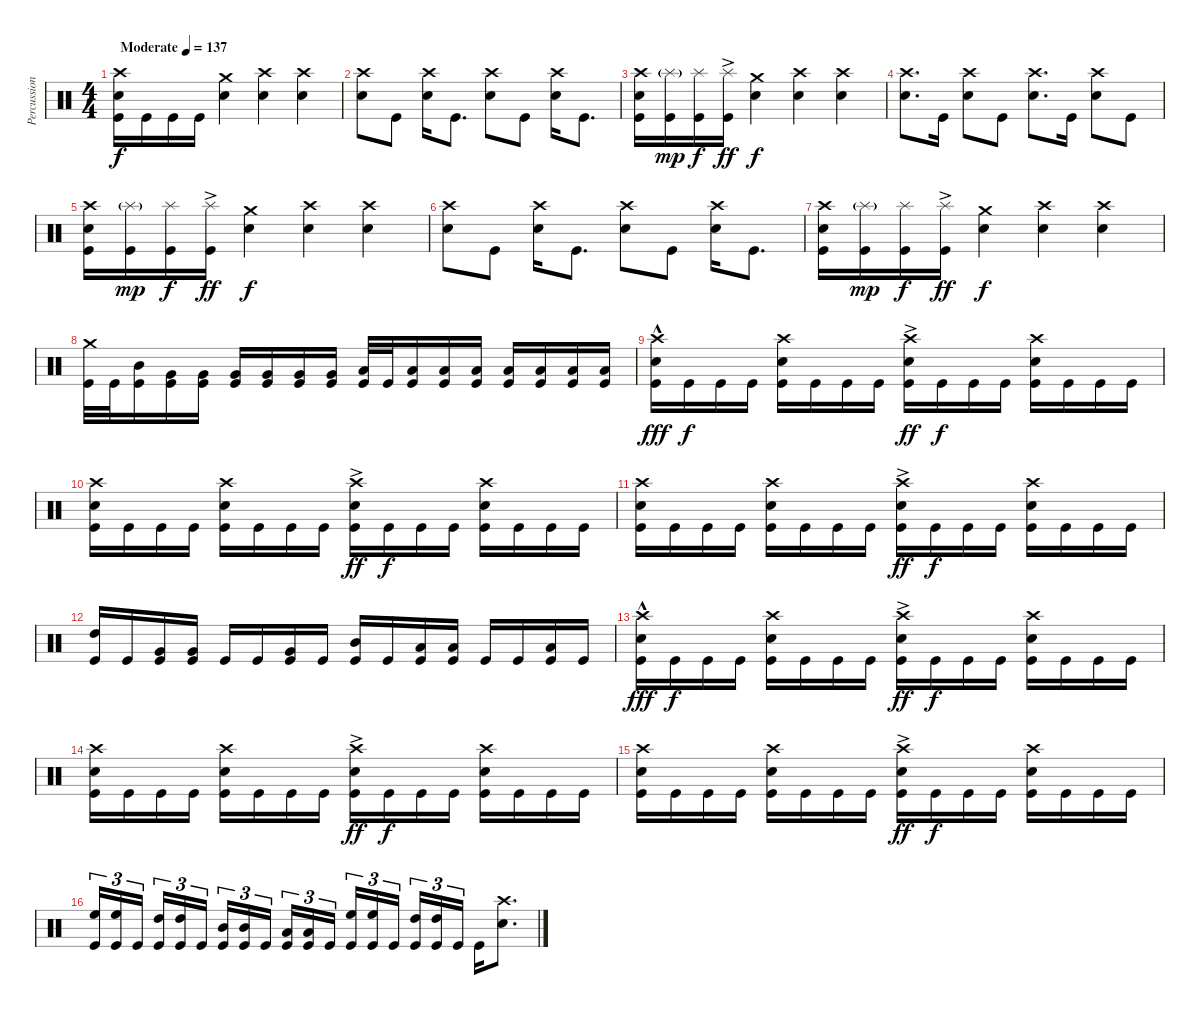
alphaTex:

\track ("Percussion" "Percussion") {instrument percussion}
\staff {score}
\articulation defaults
\ts (4 4)
\tempo (137 "Moderate")
\clef neutral
\ks c
("Crash high (hit)" "Snare (hit) 2" "Kick (hit)").16{dy f} "Kick (hit)".16 "Kick (hit)".16 "Kick (hit)".16 ("Crash medium (hit)" "Snare (hit) 2").4 ("Crash high (hit)" "Snare (hit) 2").4 ("Crash high (hit)" "Snare (hit) 2").4 |
("Crash high (hit)" "Snare (hit) 2").8 "Kick (hit)".8 ("Crash high (hit)" "Snare (hit) 2").16 "Kick (hit)".8{d} ("Crash high (hit)" "Snare (hit) 2").8 "Kick (hit)".8 ("Crash high (hit)" "Snare (hit) 2").16 "Kick (hit)".8{d} |
("Crash high (hit)" "Snare (hit) 2" "Kick (hit)").16 ("Splash (hit)"{g} "Kick (hit)").16{dy mp} ("Splash (hit)" "Kick (hit)").16{dy f} ("Splash (hit)"{ac} "Kick (hit)").16{dy ff} ("Crash medium (hit)" "Snare (hit) 2").4{dy f} ("Crash high (hit)" "Snare (hit) 2").4 ("Crash high (hit)" "Snare (hit) 2").4 |
("Crash high (hit)" "Snare (hit) 2").8{d} "Kick (hit)".16 ("Crash high (hit)" "Snare (hit) 2").8 "Kick (hit)".8 ("Crash high (hit)" "Snare (hit) 2").8{d} "Kick (hit)".16 ("Crash high (hit)" "Snare (hit) 2").8 "Kick (hit)".8 |
("Crash high (hit)" "Snare (hit) 2" "Kick (hit)").16 ("Splash (hit)"{g} "Kick (hit)").16{dy mp} ("Splash (hit)" "Kick (hit)").16{dy f} ("Splash (hit)"{ac} "Kick (hit)").16{dy ff} ("Crash medium (hit)" "Snare (hit) 2").4{dy f} ("Crash high (hit)" "Snare (hit) 2").4 ("Crash high (hit)" "Snare (hit) 2").4 |
("Crash high (hit)" "Snare (hit) 2").8 "Kick (hit)".8 ("Crash high (hit)" "Snare (hit) 2").16 "Kick (hit)".8{d} ("Crash high (hit)" "Snare (hit) 2").8 "Kick (hit)".8 ("Crash high (hit)" "Snare (hit) 2").16 "Kick (hit)".8{d} |
("Crash high (hit)" "Snare (hit) 2" "Kick (hit)").16 ("Splash (hit)"{g} "Kick (hit)").16{dy mp} ("Splash (hit)" "Kick (hit)").16{dy f} ("Splash (hit)"{ac} "Kick (hit)").16{dy ff} ("Crash medium (hit)" "Snare (hit) 2").4{dy f} ("Crash high (hit)" "Snare (hit) 2").4 ("Crash high (hit)" "Snare (hit) 2").4 |
("Crash medium (hit)" "Kick (hit)").32 "Kick (hit)".32 ("Mid Tom (hit)" "Kick (hit)").16 ("Very Low Tom (hit)" "Kick (hit)").16 ("Very Low Tom (hit)" "Kick (hit)").16 ("Very Low Tom (hit)" "Kick (hit)").16 ("Very Low Tom (hit)" "Kick (hit)").16 ("Very Low Tom (hit)" "Kick (hit)").16 ("Very Low Tom (hit)" "Kick (hit)").16 ("Low Tom (hit)" "Kick (hit)").32 "Kick (hit)".32 ("Low Tom (hit)" "Kick (hit)").16 ("Low Floor Tom (hit)" "Kick (hit)").16 ("Low Floor Tom (hit)" "Kick (hit)").16 ("Low Floor Tom (hit)" "Kick (hit)").16 ("Low Floor Tom (hit)" "Kick (hit)").16 ("Low Floor Tom (hit)" "Kick (hit)").16 ("Low Floor Tom (hit)" "Kick (hit)").16 |
("Crash high (hit)"{hac} "Snare (hit) 2" "Kick (hit)").16{dy fff} "Kick (hit)".16{dy f} "Kick (hit)".16 "Kick (hit)".16 ("Crash high (hit)" "Snare (hit) 2" "Kick (hit)").16 "Kick (hit)".16 "Kick (hit)".16 "Kick (hit)".16 ("Crash high (hit)" "Snare (hit) 2"{ac} "Kick (hit)").16{dy ff} "Kick (hit)".16{dy f} "Kick (hit)".16 "Kick (hit)".16 ("Crash high (hit)" "Snare (hit) 2" "Kick (hit)").16 "Kick (hit)".16 "Kick (hit)".16 "Kick (hit)".16 |
("Crash high (hit)" "Snare (hit) 2" "Kick (hit)").16 "Kick (hit)".16 "Kick (hit)".16 "Kick (hit)".16 ("Crash high (hit)" "Snare (hit) 2" "Kick (hit)").16 "Kick (hit)".16 "Kick (hit)".16 "Kick (hit)".16 ("Crash high (hit)" "Snare (hit) 2"{ac} "Kick (hit)").16{dy ff} "Kick (hit)".16{dy f} "Kick (hit)".16 "Kick (hit)".16 ("Crash high (hit)" "Snare (hit) 2" "Kick (hit)").16 "Kick (hit)".16 "Kick (hit)".16 "Kick (hit)".16 |
("Crash high (hit)" "Snare (hit) 2" "Kick (hit)").16 "Kick (hit)".16 "Kick (hit)".16 "Kick (hit)".16 ("Crash high (hit)" "Snare (hit) 2" "Kick (hit)").16 "Kick (hit)".16 "Kick (hit)".16 "Kick (hit)".16 ("Crash high (hit)" "Snare (hit) 2"{ac} "Kick (hit)").16{dy ff} "Kick (hit)".16{dy f} "Kick (hit)".16 "Kick (hit)".16 ("Crash high (hit)" "Snare (hit) 2" "Kick (hit)").16 "Kick (hit)".16 "Kick (hit)".16 "Kick (hit)".16 |
("High Tom (hit)" "Kick (hit)").16 "Kick (hit)".16 ("Very Low Tom (hit)" "Kick (hit)").16 ("Very Low Tom (hit)" "Kick (hit)").16 "Kick (hit)".16 "Kick (hit)".16 ("Very Low Tom (hit)" "Kick (hit)").16 "Kick (hit)".16 ("Mid Tom (hit)" "Kick (hit)").16 "Kick (hit)".16 ("Low Floor Tom (hit)" "Kick (hit)").16 ("Low Floor Tom (hit)" "Kick (hit)").16 "Kick (hit)".16 "Kick (hit)".16 ("Low Floor Tom (hit)" "Kick (hit)").16 "Kick (hit)".16 |
("Crash high (hit)"{hac} "Snare (hit) 2" "Kick (hit)").16{dy fff} "Kick (hit)".16{dy f} "Kick (hit)".16 "Kick (hit)".16 ("Crash high (hit)" "Snare (hit) 2" "Kick (hit)").16 "Kick (hit)".16 "Kick (hit)".16 "Kick (hit)".16 ("Crash high (hit)" "Snare (hit) 2"{ac} "Kick (hit)").16{dy ff} "Kick (hit)".16{dy f} "Kick (hit)".16 "Kick (hit)".16 ("Crash high (hit)" "Snare (hit) 2" "Kick (hit)").16 "Kick (hit)".16 "Kick (hit)".16 "Kick (hit)".16 |
("Crash high (hit)" "Snare (hit) 2" "Kick (hit)").16 "Kick (hit)".16 "Kick (hit)".16 "Kick (hit)".16 ("Crash high (hit)" "Snare (hit) 2" "Kick (hit)").16 "Kick (hit)".16 "Kick (hit)".16 "Kick (hit)".16 ("Crash high (hit)" "Snare (hit) 2"{ac} "Kick (hit)").16{dy ff} "Kick (hit)".16{dy f} "Kick (hit)".16 "Kick (hit)".16 ("Crash high (hit)" "Snare (hit) 2" "Kick (hit)").16 "Kick (hit)".16 "Kick (hit)".16 "Kick (hit)".16 |
("Crash high (hit)" "Snare (hit) 2" "Kick (hit)").16 "Kick (hit)".16 "Kick (hit)".16 "Kick (hit)".16 ("Crash high (hit)" "Snare (hit) 2" "Kick (hit)").16 "Kick (hit)".16 "Kick (hit)".16 "Kick (hit)".16 ("Crash high (hit)" "Snare (hit) 2"{ac} "Kick (hit)").16{dy ff} "Kick (hit)".16{dy f} "Kick (hit)".16 "Kick (hit)".16 ("Crash high (hit)" "Snare (hit) 2" "Kick (hit)").16 "Kick (hit)".16 "Kick (hit)".16 "Kick (hit)".16 |
("High Floor Tom (hit)" "Kick (hit)").16{tu (3 2)} ("High Floor Tom (hit)" "Kick (hit)").16{tu (3 2)} "Kick (hit)".16{tu (3 2) beam splitsecondary} ("High Tom (hit)" "Kick (hit)").16{tu (3 2)} ("High Tom (hit)" "Kick (hit)").16{tu (3 2)} "Kick (hit)".16{tu (3 2)} ("Mid Tom (hit)" "Kick (hit)").16{tu (3 2)} ("Mid Tom (hit)" "Kick (hit)").16{tu (3 2)} "Kick (hit)".16{tu (3 2) beam splitsecondary} ("Low Tom (hit)" "Kick (hit)").16{tu (3 2)} ("Low Tom (hit)" "Kick (hit)").16{tu (3 2)} "Kick (hit)".16{tu (3 2)} ("High Floor Tom (hit)" "Kick (hit)").16{tu (3 2)} ("High Floor Tom (hit)" "Kick (hit)").16{tu (3 2)} "Kick (hit)".16{tu (3 2) beam splitsecondary} ("High Tom (hit)" "Kick (hit)").16{tu (3 2)} ("High Tom (hit)" "Kick (hit)").16{tu (3 2)} "Kick (hit)".16{tu (3 2)} "Kick (hit)".16 ("Crash high (hit)" "Snare (hit) 2").8{d}
